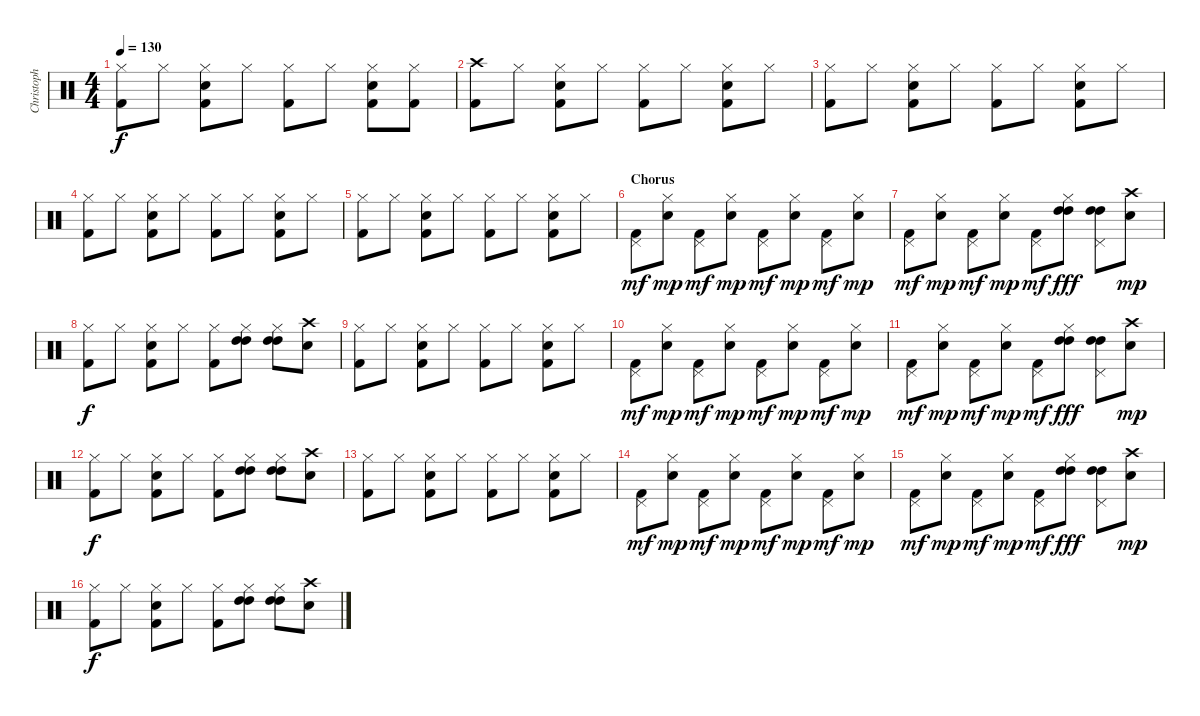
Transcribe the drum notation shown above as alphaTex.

\track ("Christoph" "Christoph") {instrument percussion}
\staff {score}
\articulation defaults
\ts (4 4)
\tempo 130
\clef neutral
\ks c
("Hi-Hat (closed)" "Kick (hit) 2").8{dy f} "Hi-Hat (closed)".8 ("Hi-Hat (closed)" "Electric Snare (hit)" "Kick (hit) 2").8 "Hi-Hat (closed)".8 ("Hi-Hat (closed)" "Kick (hit) 2").8 "Hi-Hat (closed)".8 ("Hi-Hat (closed)" "Electric Snare (hit)" "Kick (hit) 2").8 ("Hi-Hat (closed)" "Kick (hit) 2").8 |
("Crash high (hit)" "Kick (hit) 2").8 "Hi-Hat (closed)".8 ("Hi-Hat (closed)" "Electric Snare (hit)" "Kick (hit) 2").8 "Hi-Hat (closed)".8 ("Hi-Hat (closed)" "Kick (hit) 2").8 "Hi-Hat (closed)".8 ("Hi-Hat (closed)" "Electric Snare (hit)" "Kick (hit) 2").8 "Hi-Hat (closed)".8 |
("Hi-Hat (closed)" "Kick (hit) 2").8 "Hi-Hat (closed)".8 ("Hi-Hat (closed)" "Electric Snare (hit)" "Kick (hit) 2").8 "Hi-Hat (closed)".8 ("Hi-Hat (closed)" "Kick (hit) 2").8 "Hi-Hat (closed)".8 ("Hi-Hat (closed)" "Electric Snare (hit)" "Kick (hit) 2").8 "Hi-Hat (closed)".8 |
("Hi-Hat (closed)" "Kick (hit) 2").8 "Hi-Hat (closed)".8 ("Hi-Hat (closed)" "Electric Snare (hit)" "Kick (hit) 2").8 "Hi-Hat (closed)".8 ("Hi-Hat (closed)" "Kick (hit) 2").8 "Hi-Hat (closed)".8 ("Hi-Hat (closed)" "Electric Snare (hit)" "Kick (hit) 2").8 "Hi-Hat (closed)".8 |
("Hi-Hat (closed)" "Kick (hit) 2").8 "Hi-Hat (closed)".8 ("Hi-Hat (closed)" "Electric Snare (hit)" "Kick (hit) 2").8 "Hi-Hat (closed)".8 ("Hi-Hat (closed)" "Kick (hit) 2").8 "Hi-Hat (closed)".8 ("Hi-Hat (closed)" "Electric Snare (hit)" "Kick (hit) 2").8 "Hi-Hat (closed)".8 |
\section ("" "Chorus")
("Pedal Hi-Hat (hit)" "Kick (hit) 2").8{dy mf} ("Hi-Hat (closed)" "Electric Snare (hit)").8{dy mp} ("Pedal Hi-Hat (hit)" "Kick (hit) 2").8{dy mf} ("Hi-Hat (closed)" "Electric Snare (hit)").8{dy mp} ("Pedal Hi-Hat (hit)" "Kick (hit) 2").8{dy mf} ("Hi-Hat (closed)" "Electric Snare (hit)").8{dy mp} ("Pedal Hi-Hat (hit)" "Kick (hit) 2").8{dy mf} ("Hi-Hat (closed)" "Electric Snare (hit)").8{dy mp} |
("Pedal Hi-Hat (hit)" "Kick (hit) 2").8{dy mf} ("Hi-Hat (closed)" "Electric Snare (hit)").8{dy mp} ("Pedal Hi-Hat (hit)" "Kick (hit) 2").8{dy mf} ("Hi-Hat (closed)" "Electric Snare (hit)").8{dy mp} ("Pedal Hi-Hat (hit)" "Kick (hit) 2").8{dy mf} ("Hi-Hat (closed)" "High Tom (hit)" "High Tom (hit)").8{dy fff} ("Pedal Hi-Hat (hit)" "High Tom (hit)" "High Tom (hit)").8 ("Crash high (hit)" "Electric Snare (hit)").8{dy mp} |
("Hi-Hat (closed)" "Kick (hit) 2").8{dy f} "Hi-Hat (closed)".8 ("Hi-Hat (closed)" "Electric Snare (hit)" "Kick (hit) 2").8 "Hi-Hat (closed)".8 ("Hi-Hat (closed)" "Kick (hit) 2").8 ("Hi-Hat (closed)" "High Tom (hit)" "High Tom (hit)").8 ("Hi-Hat (closed)" "High Tom (hit)" "High Tom (hit)").8 ("Crash high (hit)" "Electric Snare (hit)").8 |
("Hi-Hat (closed)" "Kick (hit) 2").8 "Hi-Hat (closed)".8 ("Hi-Hat (closed)" "Electric Snare (hit)" "Kick (hit) 2").8 "Hi-Hat (closed)".8 ("Hi-Hat (closed)" "Kick (hit) 2").8 "Hi-Hat (closed)".8 ("Hi-Hat (closed)" "Electric Snare (hit)" "Kick (hit) 2").8 "Hi-Hat (closed)".8 |
("Pedal Hi-Hat (hit)" "Kick (hit) 2").8{dy mf} ("Hi-Hat (closed)" "Electric Snare (hit)").8{dy mp} ("Pedal Hi-Hat (hit)" "Kick (hit) 2").8{dy mf} ("Hi-Hat (closed)" "Electric Snare (hit)").8{dy mp} ("Pedal Hi-Hat (hit)" "Kick (hit) 2").8{dy mf} ("Hi-Hat (closed)" "Electric Snare (hit)").8{dy mp} ("Pedal Hi-Hat (hit)" "Kick (hit) 2").8{dy mf} ("Hi-Hat (closed)" "Electric Snare (hit)").8{dy mp} |
("Pedal Hi-Hat (hit)" "Kick (hit) 2").8{dy mf} ("Hi-Hat (closed)" "Electric Snare (hit)").8{dy mp} ("Pedal Hi-Hat (hit)" "Kick (hit) 2").8{dy mf} ("Hi-Hat (closed)" "Electric Snare (hit)").8{dy mp} ("Pedal Hi-Hat (hit)" "Kick (hit) 2").8{dy mf} ("Hi-Hat (closed)" "High Tom (hit)" "High Tom (hit)").8{dy fff} ("Pedal Hi-Hat (hit)" "High Tom (hit)" "High Tom (hit)").8 ("Crash high (hit)" "Electric Snare (hit)").8{dy mp} |
("Hi-Hat (closed)" "Kick (hit) 2").8{dy f} "Hi-Hat (closed)".8 ("Hi-Hat (closed)" "Electric Snare (hit)" "Kick (hit) 2").8 "Hi-Hat (closed)".8 ("Hi-Hat (closed)" "Kick (hit) 2").8 ("Hi-Hat (closed)" "High Tom (hit)" "High Tom (hit)").8 ("Hi-Hat (closed)" "High Tom (hit)" "High Tom (hit)").8 ("Crash high (hit)" "Electric Snare (hit)").8 |
("Hi-Hat (closed)" "Kick (hit) 2").8 "Hi-Hat (closed)".8 ("Hi-Hat (closed)" "Electric Snare (hit)" "Kick (hit) 2").8 "Hi-Hat (closed)".8 ("Hi-Hat (closed)" "Kick (hit) 2").8 "Hi-Hat (closed)".8 ("Hi-Hat (closed)" "Electric Snare (hit)" "Kick (hit) 2").8 "Hi-Hat (closed)".8 |
("Pedal Hi-Hat (hit)" "Kick (hit) 2").8{dy mf} ("Hi-Hat (closed)" "Electric Snare (hit)").8{dy mp} ("Pedal Hi-Hat (hit)" "Kick (hit) 2").8{dy mf} ("Hi-Hat (closed)" "Electric Snare (hit)").8{dy mp} ("Pedal Hi-Hat (hit)" "Kick (hit) 2").8{dy mf} ("Hi-Hat (closed)" "Electric Snare (hit)").8{dy mp} ("Pedal Hi-Hat (hit)" "Kick (hit) 2").8{dy mf} ("Hi-Hat (closed)" "Electric Snare (hit)").8{dy mp} |
("Pedal Hi-Hat (hit)" "Kick (hit) 2").8{dy mf} ("Hi-Hat (closed)" "Electric Snare (hit)").8{dy mp} ("Pedal Hi-Hat (hit)" "Kick (hit) 2").8{dy mf} ("Hi-Hat (closed)" "Electric Snare (hit)").8{dy mp} ("Pedal Hi-Hat (hit)" "Kick (hit) 2").8{dy mf} ("Hi-Hat (closed)" "High Tom (hit)" "High Tom (hit)").8{dy fff} ("Pedal Hi-Hat (hit)" "High Tom (hit)" "High Tom (hit)").8 ("Crash high (hit)" "Electric Snare (hit)").8{dy mp} |
("Hi-Hat (closed)" "Kick (hit) 2").8{dy f} "Hi-Hat (closed)".8 ("Hi-Hat (closed)" "Electric Snare (hit)" "Kick (hit) 2").8 "Hi-Hat (closed)".8 ("Hi-Hat (closed)" "Kick (hit) 2").8 ("Hi-Hat (closed)" "High Tom (hit)" "High Tom (hit)").8 ("Hi-Hat (closed)" "High Tom (hit)" "High Tom (hit)").8 ("Crash high (hit)" "Electric Snare (hit)").8
